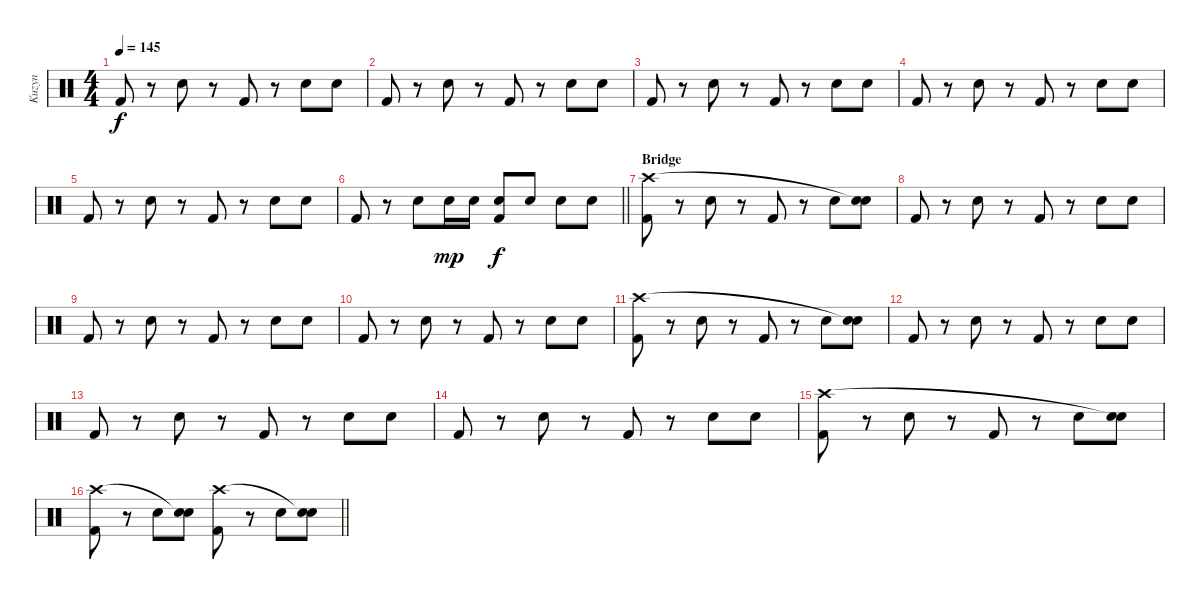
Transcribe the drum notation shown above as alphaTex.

\track ("Kuzyn" "Kuzyn") {instrument percussion}
\staff {score}
\articulation defaults
\ts (4 4)
\tempo 145
\clef neutral
\ks c "Kick (hit) 2".8{dy f}
r.8 "Snare (hit) 2".8 r.8 "Kick (hit) 2".8 r.8 "Snare (hit) 2".8 "Snare (hit) 2".8 |
"Kick (hit) 2".8 r.8 "Snare (hit) 2".8 r.8 "Kick (hit) 2".8 r.8 "Snare (hit) 2".8 "Snare (hit) 2".8 |
"Kick (hit) 2".8 r.8 "Snare (hit) 2".8 r.8 "Kick (hit) 2".8 r.8 "Snare (hit) 2".8 "Snare (hit) 2".8 |
"Kick (hit) 2".8 r.8 "Snare (hit) 2".8 r.8 "Kick (hit) 2".8 r.8 "Snare (hit) 2".8 "Snare (hit) 2".8 |
"Kick (hit) 2".8 r.8 "Snare (hit) 2".8 r.8 "Kick (hit) 2".8 r.8 "Snare (hit) 2".8 "Snare (hit) 2".8 |
\barLineRight lightlight "Kick (hit) 2".8
r.8 "Snare (hit) 2".8 "Snare (hit) 2".16{dy mp} "Snare (hit) 2".16 ("Snare (hit) 2" "Kick (hit) 2").8{dy f} "Snare (hit) 2".8 "Snare (hit) 2".8 "Snare (hit) 2".8 |
\section ("" "Bridge")
("Kick (hit) 2" "Crash high (hit)").8 r.8 "Snare (hit) 2".8 r.8 "Kick (hit) 2".8 r.8 "Snare (hit) 2".8 ("Snare (hit) 2" "Snare (hit)"{t}).8 |
"Kick (hit) 2".8 r.8 "Snare (hit) 2".8 r.8 "Kick (hit) 2".8 r.8 "Snare (hit) 2".8 "Snare (hit) 2".8 |
"Kick (hit) 2".8 r.8 "Snare (hit) 2".8 r.8 "Kick (hit) 2".8 r.8 "Snare (hit) 2".8 "Snare (hit) 2".8 |
"Kick (hit) 2".8 r.8 "Snare (hit) 2".8 r.8 "Kick (hit) 2".8 r.8 "Snare (hit) 2".8 "Snare (hit) 2".8 |
("Kick (hit) 2" "Crash high (hit)").8 r.8 "Snare (hit) 2".8 r.8 "Kick (hit) 2".8 r.8 "Snare (hit) 2".8 ("Snare (hit) 2" "Snare (hit)"{t}).8 |
"Kick (hit) 2".8 r.8 "Snare (hit) 2".8 r.8 "Kick (hit) 2".8 r.8 "Snare (hit) 2".8 "Snare (hit) 2".8 |
"Kick (hit) 2".8 r.8 "Snare (hit) 2".8 r.8 "Kick (hit) 2".8 r.8 "Snare (hit) 2".8 "Snare (hit) 2".8 |
"Kick (hit) 2".8 r.8 "Snare (hit) 2".8 r.8 "Kick (hit) 2".8 r.8 "Snare (hit) 2".8 "Snare (hit) 2".8 |
("Kick (hit) 2" "Crash high (hit)").8 r.8 "Snare (hit) 2".8 r.8 "Kick (hit) 2".8 r.8 "Snare (hit) 2".8 ("Snare (hit) 2" "Snare (hit)"{t}).8 |
\barLineRight lightlight
("Kick (hit) 2" "Crash high (hit)").8 r.8 "Snare (hit) 2".8 ("Snare (hit) 2" "Snare (hit)"{t}).8 ("Kick (hit) 2" "Crash high (hit)").8 r.8 "Snare (hit) 2".8 ("Snare (hit) 2" "Snare (hit)"{t}).8
